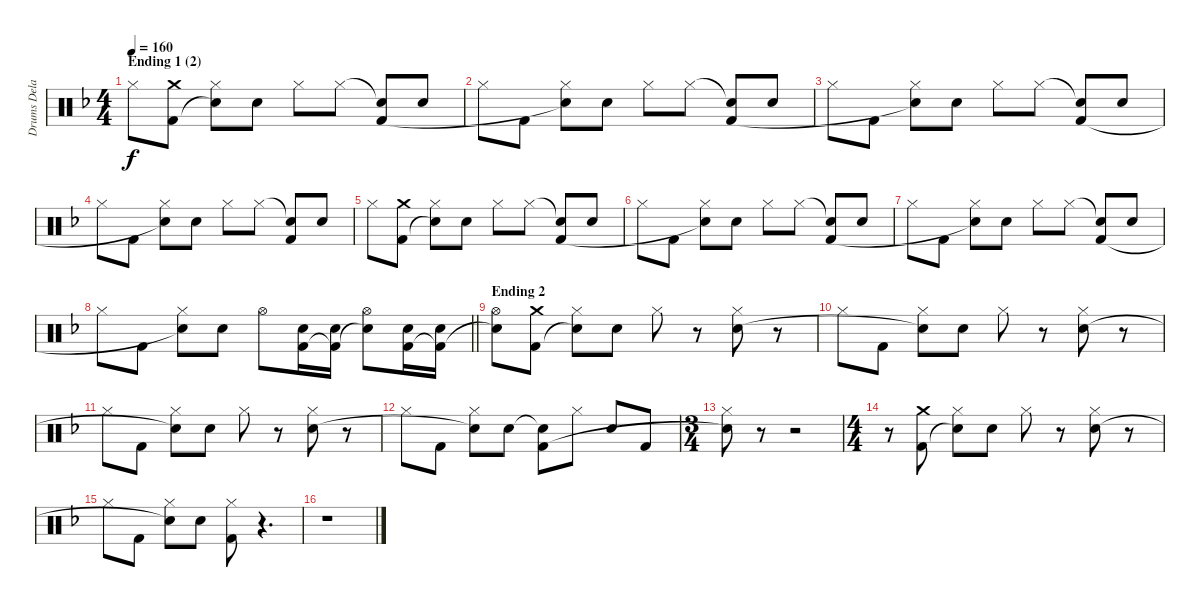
\track ("Drums Delay" "Drums Dela") {instrument percussion}
\staff {score}
\articulation defaults
\ts (4 4)
\section ("" "Ending 1 (2)")
\tempo 160
\clef neutral
\ks f "Hi-Hat (closed)".8{dy f}
("Crash medium (hit)" "Kick (hit) 2").8 ("Hi-Hat (closed)" "Snare (hit)"{t}).8 "Electric Snare (hit)".8 "Hi-Hat (closed)".8 "Hi-Hat (closed)".8 ("Snare (hit)"{t} "Kick (hit) 2").8 "Electric Snare (hit)".8 |
"Hi-Hat (closed)".8 "Kick (hit) 2".8 ("Hi-Hat (closed)" "Snare (hit)"{t}).8 "Electric Snare (hit)".8 "Hi-Hat (closed)".8 "Hi-Hat (closed)".8 ("Snare (hit)"{t} "Kick (hit) 2").8 "Electric Snare (hit)".8 |
"Hi-Hat (closed)".8 "Kick (hit) 2".8 ("Hi-Hat (closed)" "Snare (hit)"{t}).8 "Electric Snare (hit)".8 "Hi-Hat (closed)".8 "Hi-Hat (closed)".8 ("Snare (hit)"{t} "Kick (hit) 2").8 "Electric Snare (hit)".8 |
"Hi-Hat (closed)".8 "Kick (hit) 2".8 ("Hi-Hat (closed)" "Snare (hit)"{t}).8 "Electric Snare (hit)".8 "Hi-Hat (closed)".8 "Hi-Hat (closed)".8 ("Snare (hit)"{t} "Kick (hit) 2").8 "Electric Snare (hit)".8 |
"Hi-Hat (closed)".8 ("Crash medium (hit)" "Kick (hit) 2").8 ("Hi-Hat (closed)" "Snare (hit)"{t}).8 "Electric Snare (hit)".8 "Hi-Hat (closed)".8 "Hi-Hat (closed)".8 ("Snare (hit)"{t} "Kick (hit) 2").8 "Electric Snare (hit)".8 |
"Hi-Hat (closed)".8 "Kick (hit) 2".8 ("Hi-Hat (closed)" "Snare (hit)"{t}).8 "Electric Snare (hit)".8 "Hi-Hat (closed)".8 "Hi-Hat (closed)".8 ("Snare (hit)"{t} "Kick (hit) 2").8 "Electric Snare (hit)".8 |
"Hi-Hat (closed)".8 "Kick (hit) 2".8 ("Hi-Hat (closed)" "Snare (hit)"{t}).8 "Electric Snare (hit)".8 "Hi-Hat (closed)".8 "Hi-Hat (closed)".8 ("Snare (hit)"{t} "Kick (hit) 2").8 "Electric Snare (hit)".8 |
\barLineRight lightlight "Hi-Hat (closed)".8 "Kick (hit) 2".8
("Hi-Hat (closed)" "Snare (hit)"{t}).8 "Electric Snare (hit)".8 "Hi-Hat (open)".8 ("Electric Snare (hit)" "Kick (hit) 2").16 ("Electric Snare (hit)" "Kick (hit) 2"{t}).16 ("Hi-Hat (open)" "Snare (hit)"{t}).8 ("Electric Snare (hit)" "Kick (hit) 2").16 ("Electric Snare (hit)" "Kick (hit) 2"{t}).16 |
\section ("" "Ending 2")
("Hi-Hat (open)" "Snare (hit)"{t}).8 ("Crash medium (hit)" "Kick (hit) 2").8 ("Hi-Hat (closed)" "Snare (hit)"{t}).8 "Electric Snare (hit)".8 "Hi-Hat (closed)".8 r.8 ("Hi-Hat (closed)" "Electric Snare (hit)").8 r.8 |
"Hi-Hat (closed)".8 "Kick (hit) 2".8 ("Hi-Hat (closed)" "Snare (hit)"{t}).8 "Electric Snare (hit)".8 "Hi-Hat (closed)".8 r.8 ("Hi-Hat (closed)" "Electric Snare (hit)").8 r.8 |
"Hi-Hat (closed)".8 "Kick (hit) 2".8 ("Hi-Hat (closed)" "Snare (hit)"{t}).8 "Electric Snare (hit)".8 "Hi-Hat (closed)".8 r.8 ("Hi-Hat (closed)" "Electric Snare (hit)").8 r.8 |
"Hi-Hat (closed)".8 "Kick (hit) 2".8 ("Hi-Hat (closed)" "Snare (hit)"{t}).8 "Electric Snare (hit)".8 ("Snare (hit)"{t} "Kick (hit) 2").8 "Hi-Hat (closed)".8 "Electric Snare (hit)".8 "Kick (hit) 2".8 |
\ts (3 4)
("Hi-Hat (closed)" "Snare (hit)"{t}).8 r.8 r.2 |
\ts (4 4)
r.8 ("Crash medium (hit)" "Kick (hit) 2").8 ("Hi-Hat (closed)" "Snare (hit)"{t}).8 "Electric Snare (hit)".8 "Hi-Hat (closed)".8 r.8 ("Hi-Hat (closed)" "Electric Snare (hit)").8 r.8 |
"Hi-Hat (closed)".8 "Kick (hit) 2".8 ("Hi-Hat (closed)" "Snare (hit)"{t}).8 "Electric Snare (hit)".8 ("Hi-Hat (closed)" "Kick (hit) 2").8 r.4{d} |
r.1
